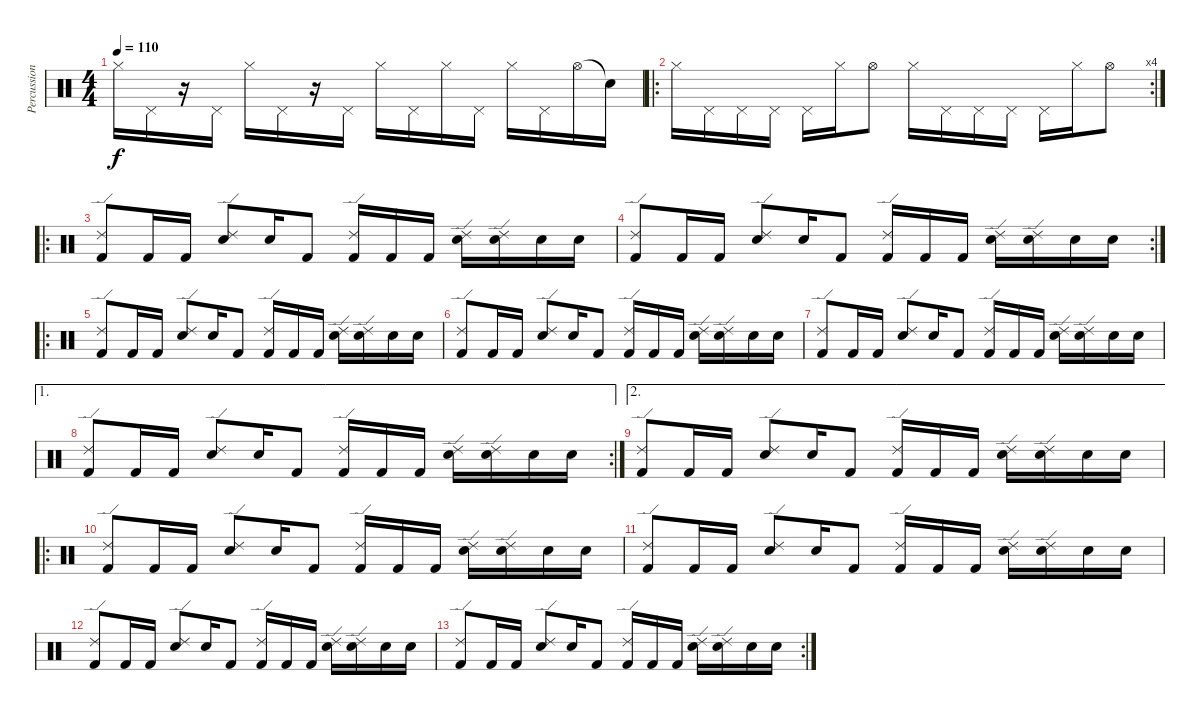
\track ("Percussion" "Percussion") {instrument percussion}
\staff {score}
\articulation defaults
\ts (4 4)
\tempo 110
\clef neutral
\ks c "Hi-Hat (closed)".16{dy f} "Pedal Hi-Hat (hit)".16
r.16 "Pedal Hi-Hat (hit)".16 "Hi-Hat (closed)".16 "Pedal Hi-Hat (hit)".16 r.16 "Pedal Hi-Hat (hit)".16 "Hi-Hat (closed)".16 "Pedal Hi-Hat (hit)".16 "Hi-Hat (closed)".16 "Pedal Hi-Hat (hit)".16 "Hi-Hat (closed)".16 "Pedal Hi-Hat (hit)".16 "Hi-Hat (open)".16 "Snare (hit)"{t}.16 |
\ro
\rc 4 "Hi-Hat (closed)".16 "Pedal Hi-Hat (hit)".16 "Pedal Hi-Hat (hit)".16 "Pedal Hi-Hat (hit)".16 "Pedal Hi-Hat (hit)".16 "Hi-Hat (closed)".16 "Hi-Hat (open)".8 "Hi-Hat (closed)".16 "Pedal Hi-Hat (hit)".16 "Pedal Hi-Hat (hit)".16 "Pedal Hi-Hat (hit)".16 "Pedal Hi-Hat (hit)".16 "Hi-Hat (closed)".16 "Hi-Hat (open)".8
|
\ro
("Ride (edge) 2" "Kick (hit) 2").8 "Kick (hit) 2".16 "Kick (hit) 2".16 ("Ride (edge) 2" "Electric Snare (hit)").8 "Electric Snare (hit)".16 "Kick (hit) 2".8 ("Ride (edge) 2" "Kick (hit) 2").16 "Kick (hit) 2".16 "Kick (hit) 2".16 ("Ride (edge) 2" "Electric Snare (hit)").16 ("Ride (edge) 2" "Electric Snare (hit)").16 "Electric Snare (hit)".16 "Electric Snare (hit)".16 |
\rc 2
("Ride (edge) 2" "Kick (hit) 2").8 "Kick (hit) 2".16 "Kick (hit) 2".16 ("Ride (edge) 2" "Electric Snare (hit)").8 "Electric Snare (hit)".16 "Kick (hit) 2".8 ("Ride (edge) 2" "Kick (hit) 2").16 "Kick (hit) 2".16 "Kick (hit) 2".16 ("Ride (edge) 2" "Electric Snare (hit)").16 ("Ride (edge) 2" "Electric Snare (hit)").16 "Electric Snare (hit)".16 "Electric Snare (hit)".16 |
\ro
("Ride (edge) 2" "Kick (hit) 2").8 "Kick (hit) 2".16 "Kick (hit) 2".16 ("Ride (edge) 2" "Electric Snare (hit)").8 "Electric Snare (hit)".16 "Kick (hit) 2".8 ("Ride (edge) 2" "Kick (hit) 2").16 "Kick (hit) 2".16 "Kick (hit) 2".16 ("Ride (edge) 2" "Electric Snare (hit)").16 ("Ride (edge) 2" "Electric Snare (hit)").16 "Electric Snare (hit)".16 "Electric Snare (hit)".16 |
("Ride (edge) 2" "Kick (hit) 2").8 "Kick (hit) 2".16 "Kick (hit) 2".16 ("Ride (edge) 2" "Electric Snare (hit)").8 "Electric Snare (hit)".16 "Kick (hit) 2".8 ("Ride (edge) 2" "Kick (hit) 2").16 "Kick (hit) 2".16 "Kick (hit) 2".16 ("Ride (edge) 2" "Electric Snare (hit)").16 ("Ride (edge) 2" "Electric Snare (hit)").16 "Electric Snare (hit)".16 "Electric Snare (hit)".16 |
("Ride (edge) 2" "Kick (hit) 2").8 "Kick (hit) 2".16 "Kick (hit) 2".16 ("Ride (edge) 2" "Electric Snare (hit)").8 "Electric Snare (hit)".16 "Kick (hit) 2".8 ("Ride (edge) 2" "Kick (hit) 2").16 "Kick (hit) 2".16 "Kick (hit) 2".16 ("Ride (edge) 2" "Electric Snare (hit)").16 ("Ride (edge) 2" "Electric Snare (hit)").16 "Electric Snare (hit)".16 "Electric Snare (hit)".16 |
\ae 1
\rc 2
("Ride (edge) 2" "Kick (hit) 2").8 "Kick (hit) 2".16 "Kick (hit) 2".16 ("Ride (edge) 2" "Electric Snare (hit)").8 "Electric Snare (hit)".16 "Kick (hit) 2".8 ("Ride (edge) 2" "Kick (hit) 2").16 "Kick (hit) 2".16 "Kick (hit) 2".16 ("Ride (edge) 2" "Electric Snare (hit)").16 ("Ride (edge) 2" "Electric Snare (hit)").16 "Electric Snare (hit)".16 "Electric Snare (hit)".16 |
\ae 2
("Ride (edge) 2" "Kick (hit) 2").8 "Kick (hit) 2".16 "Kick (hit) 2".16 ("Ride (edge) 2" "Electric Snare (hit)").8 "Electric Snare (hit)".16 "Kick (hit) 2".8 ("Ride (edge) 2" "Kick (hit) 2").16 "Kick (hit) 2".16 "Kick (hit) 2".16 ("Ride (edge) 2" "Electric Snare (hit)").16 ("Ride (edge) 2" "Electric Snare (hit)").16 "Electric Snare (hit)".16 "Electric Snare (hit)".16 |
\ro
("Ride (edge) 2" "Kick (hit) 2").8 "Kick (hit) 2".16 "Kick (hit) 2".16 ("Ride (edge) 2" "Electric Snare (hit)").8 "Electric Snare (hit)".16 "Kick (hit) 2".8 ("Ride (edge) 2" "Kick (hit) 2").16 "Kick (hit) 2".16 "Kick (hit) 2".16 ("Ride (edge) 2" "Electric Snare (hit)").16 ("Ride (edge) 2" "Electric Snare (hit)").16 "Electric Snare (hit)".16 "Electric Snare (hit)".16 |
("Ride (edge) 2" "Kick (hit) 2").8 "Kick (hit) 2".16 "Kick (hit) 2".16 ("Ride (edge) 2" "Electric Snare (hit)").8 "Electric Snare (hit)".16 "Kick (hit) 2".8 ("Ride (edge) 2" "Kick (hit) 2").16 "Kick (hit) 2".16 "Kick (hit) 2".16 ("Ride (edge) 2" "Electric Snare (hit)").16 ("Ride (edge) 2" "Electric Snare (hit)").16 "Electric Snare (hit)".16 "Electric Snare (hit)".16 |
("Ride (edge) 2" "Kick (hit) 2").8 "Kick (hit) 2".16 "Kick (hit) 2".16 ("Ride (edge) 2" "Electric Snare (hit)").8 "Electric Snare (hit)".16 "Kick (hit) 2".8 ("Ride (edge) 2" "Kick (hit) 2").16 "Kick (hit) 2".16 "Kick (hit) 2".16 ("Ride (edge) 2" "Electric Snare (hit)").16 ("Ride (edge) 2" "Electric Snare (hit)").16 "Electric Snare (hit)".16 "Electric Snare (hit)".16 |
\rc 2
("Ride (edge) 2" "Kick (hit) 2").8 "Kick (hit) 2".16 "Kick (hit) 2".16 ("Ride (edge) 2" "Electric Snare (hit)").8 "Electric Snare (hit)".16 "Kick (hit) 2".8 ("Ride (edge) 2" "Kick (hit) 2").16 "Kick (hit) 2".16 "Kick (hit) 2".16 ("Ride (edge) 2" "Electric Snare (hit)").16 ("Ride (edge) 2" "Electric Snare (hit)").16 "Electric Snare (hit)".16 "Electric Snare (hit)".16
